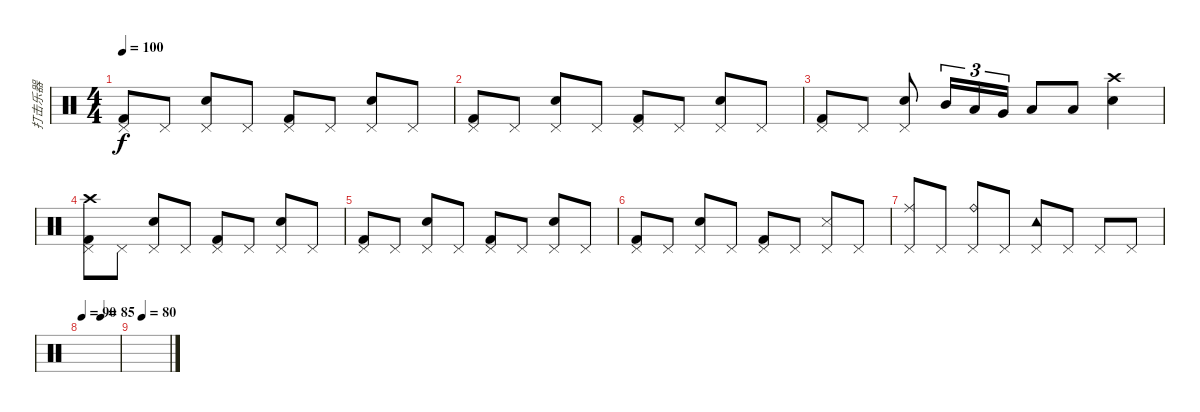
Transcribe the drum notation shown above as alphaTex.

\track ("打击乐器" "打击乐器") {instrument percussion}
\staff {score}
\articulation defaults
\ts (4 4)
\tempo 100
\clef neutral
\ks c
("Pedal Hi-Hat (hit)" "Kick (hit) 2").8{dy f} "Pedal Hi-Hat (hit)".8 ("Pedal Hi-Hat (hit)" "Snare (hit) 2").8 "Pedal Hi-Hat (hit)".8 ("Pedal Hi-Hat (hit)" "Kick (hit) 2").8 "Pedal Hi-Hat (hit)".8 ("Pedal Hi-Hat (hit)" "Snare (hit) 2").8 "Pedal Hi-Hat (hit)".8 |
("Pedal Hi-Hat (hit)" "Kick (hit) 2").8 "Pedal Hi-Hat (hit)".8 ("Pedal Hi-Hat (hit)" "Snare (hit) 2").8 "Pedal Hi-Hat (hit)".8 ("Pedal Hi-Hat (hit)" "Kick (hit) 2").8 "Pedal Hi-Hat (hit)".8 ("Pedal Hi-Hat (hit)" "Snare (hit) 2").8 "Pedal Hi-Hat (hit)".8 |
("Pedal Hi-Hat (hit)" "Kick (hit) 2").8 "Pedal Hi-Hat (hit)".8 ("Pedal Hi-Hat (hit)" "Snare (hit) 2").8 "Mid Tom (hit)".16{tu (3 2)} "Low Tom (hit)".16{tu (3 2)} "Very Low Tom (hit)".16{tu (3 2)} "Low Floor Tom (hit)".8 "Low Floor Tom (hit)".8 ("Snare (hit) 2" "Crash high (hit)").4 |
("Pedal Hi-Hat (hit)" "Kick (hit) 2" "Crash high (hit)").8 "Pedal Hi-Hat (hit)".8 ("Pedal Hi-Hat (hit)" "Snare (hit) 2").8 "Pedal Hi-Hat (hit)".8 ("Pedal Hi-Hat (hit)" "Kick (hit) 2").8 "Pedal Hi-Hat (hit)".8 ("Pedal Hi-Hat (hit)" "Snare (hit) 2").8 "Pedal Hi-Hat (hit)".8 |
("Pedal Hi-Hat (hit)" "Kick (hit) 2").8 "Pedal Hi-Hat (hit)".8 ("Pedal Hi-Hat (hit)" "Snare (hit) 2").8 "Pedal Hi-Hat (hit)".8 ("Pedal Hi-Hat (hit)" "Kick (hit) 2").8 "Pedal Hi-Hat (hit)".8 ("Pedal Hi-Hat (hit)" "Snare (hit) 2").8 "Pedal Hi-Hat (hit)".8 |
("Pedal Hi-Hat (hit)" "Kick (hit) 2").8 "Pedal Hi-Hat (hit)".8 ("Pedal Hi-Hat (hit)" "Snare (hit) 2").8 "Pedal Hi-Hat (hit)".8 ("Pedal Hi-Hat (hit)" "Kick (hit) 2").8 "Pedal Hi-Hat (hit)".8 ("Pedal Hi-Hat (hit)" "Snare (side stick) 3").8 "Pedal Hi-Hat (hit)".8 |
("Pedal Hi-Hat (hit)" "Ride (middle)").8 "Pedal Hi-Hat (hit)".8 ("Pedal Hi-Hat (hit)" "Ride (bell)").8 "Pedal Hi-Hat (hit)".8 ("Pedal Hi-Hat (hit)" "Tambourine (hit)").8 "Pedal Hi-Hat (hit)".8 "Pedal Hi-Hat (hit)".8 "Pedal Hi-Hat (hit)".8 |
\tempo 90
\tempo (85 0.5)
|
\tempo (80 0.25)
